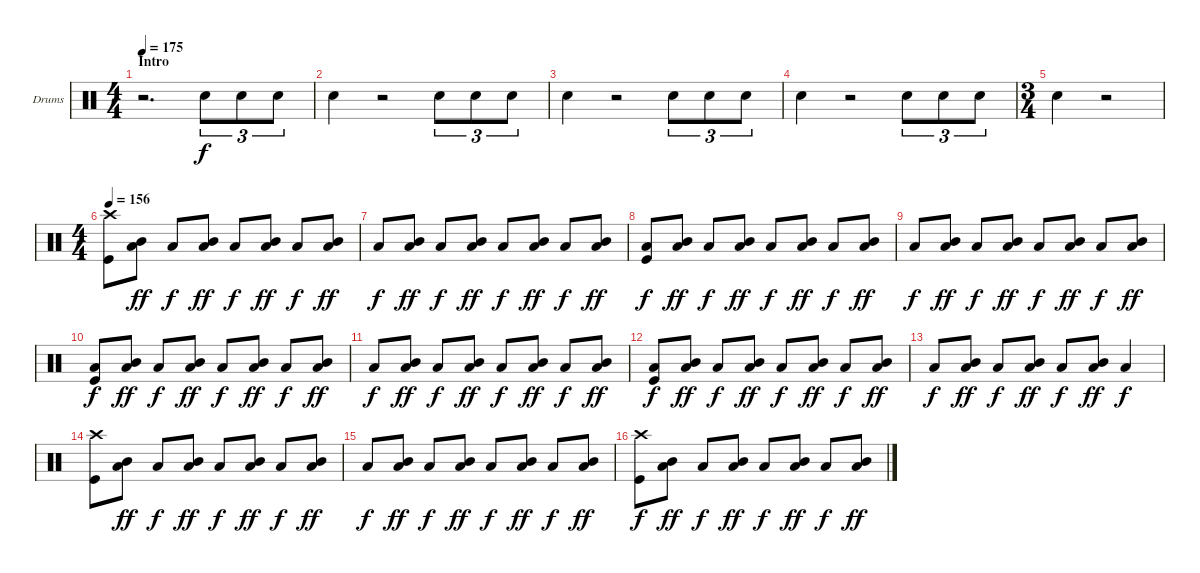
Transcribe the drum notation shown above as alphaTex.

\bracketExtendMode groupsimilarinstruments
\firstSystemTrackNameOrientation horizontal
\otherSystemsTrackNameOrientation horizontal
\track ("Drums" "Drums") {instrument percussion}
\staff {score}
\articulation defaults
\ts (4 4)
\section ("" "Intro")
\tempo 175
\clef neutral
\ks c
r.2{d dy f} "Snare (hit) 2".8{tu (3 2)} "Snare (hit) 2".8{tu (3 2)} "Snare (hit) 2".8{tu (3 2)} |
"Snare (hit) 2".4 r.2 "Snare (hit) 2".8{tu (3 2)} "Snare (hit) 2".8{tu (3 2)} "Snare (hit) 2".8{tu (3 2)} |
"Snare (hit) 2".4 r.2 "Snare (hit) 2".8{tu (3 2)} "Snare (hit) 2".8{tu (3 2)} "Snare (hit) 2".8{tu (3 2)} |
"Snare (hit) 2".4 r.2 "Snare (hit) 2".8{tu (3 2)} "Snare (hit) 2".8{tu (3 2)} "Snare (hit) 2".8{tu (3 2)} |
\ts (3 4)
"Snare (hit) 2".4 r.2 |
\ts (4 4)
\tempo 156
("Kick (hit)" "Crash high (hit)").8 ("Low Tom (hit)" "Mid Tom (hit)").8{dy ff} "Low Tom (hit)".8{dy f} ("Low Tom (hit)" "Mid Tom (hit)").8{dy ff} "Low Tom (hit)".8{dy f} ("Low Tom (hit)" "Mid Tom (hit)").8{dy ff} "Low Tom (hit)".8{dy f} ("Low Tom (hit)" "Mid Tom (hit)").8{dy ff} |
"Low Tom (hit)".8{dy f} ("Low Tom (hit)" "Mid Tom (hit)").8{dy ff} "Low Tom (hit)".8{dy f} ("Low Tom (hit)" "Mid Tom (hit)").8{dy ff} "Low Tom (hit)".8{dy f} ("Low Tom (hit)" "Mid Tom (hit)").8{dy ff} "Low Tom (hit)".8{dy f} ("Low Tom (hit)" "Mid Tom (hit)").8{dy ff} |
("Low Tom (hit)" "Kick (hit)").8{dy f} ("Low Tom (hit)" "Mid Tom (hit)").8{dy ff} "Low Tom (hit)".8{dy f} ("Low Tom (hit)" "Mid Tom (hit)").8{dy ff} "Low Tom (hit)".8{dy f} ("Low Tom (hit)" "Mid Tom (hit)").8{dy ff} "Low Tom (hit)".8{dy f} ("Low Tom (hit)" "Mid Tom (hit)").8{dy ff} |
"Low Tom (hit)".8{dy f} ("Low Tom (hit)" "Mid Tom (hit)").8{dy ff} "Low Tom (hit)".8{dy f} ("Low Tom (hit)" "Mid Tom (hit)").8{dy ff} "Low Tom (hit)".8{dy f} ("Low Tom (hit)" "Mid Tom (hit)").8{dy ff} "Low Tom (hit)".8{dy f} ("Low Tom (hit)" "Mid Tom (hit)").8{dy ff} |
("Low Tom (hit)" "Kick (hit)").8{dy f} ("Low Tom (hit)" "Mid Tom (hit)").8{dy ff} "Low Tom (hit)".8{dy f} ("Low Tom (hit)" "Mid Tom (hit)").8{dy ff} "Low Tom (hit)".8{dy f} ("Low Tom (hit)" "Mid Tom (hit)").8{dy ff} "Low Tom (hit)".8{dy f} ("Low Tom (hit)" "Mid Tom (hit)").8{dy ff} |
"Low Tom (hit)".8{dy f} ("Low Tom (hit)" "Mid Tom (hit)").8{dy ff} "Low Tom (hit)".8{dy f} ("Low Tom (hit)" "Mid Tom (hit)").8{dy ff} "Low Tom (hit)".8{dy f} ("Low Tom (hit)" "Mid Tom (hit)").8{dy ff} "Low Tom (hit)".8{dy f} ("Low Tom (hit)" "Mid Tom (hit)").8{dy ff} |
("Low Tom (hit)" "Kick (hit)").8{dy f} ("Low Tom (hit)" "Mid Tom (hit)").8{dy ff} "Low Tom (hit)".8{dy f} ("Low Tom (hit)" "Mid Tom (hit)").8{dy ff} "Low Tom (hit)".8{dy f} ("Low Tom (hit)" "Mid Tom (hit)").8{dy ff} "Low Tom (hit)".8{dy f} ("Low Tom (hit)" "Mid Tom (hit)").8{dy ff} |
"Low Tom (hit)".8{dy f} ("Low Tom (hit)" "Mid Tom (hit)").8{dy ff} "Low Tom (hit)".8{dy f} ("Low Tom (hit)" "Mid Tom (hit)").8{dy ff} "Low Tom (hit)".8{dy f} ("Low Tom (hit)" "Mid Tom (hit)").8{dy ff} "Low Tom (hit)".4{dy f} |
("Kick (hit)" "Crash high (hit)").8 ("Low Tom (hit)" "Mid Tom (hit)").8{dy ff} "Low Tom (hit)".8{dy f} ("Low Tom (hit)" "Mid Tom (hit)").8{dy ff} "Low Tom (hit)".8{dy f} ("Low Tom (hit)" "Mid Tom (hit)").8{dy ff} "Low Tom (hit)".8{dy f} ("Low Tom (hit)" "Mid Tom (hit)").8{dy ff} |
"Low Tom (hit)".8{dy f} ("Low Tom (hit)" "Mid Tom (hit)").8{dy ff} "Low Tom (hit)".8{dy f} ("Low Tom (hit)" "Mid Tom (hit)").8{dy ff} "Low Tom (hit)".8{dy f} ("Low Tom (hit)" "Mid Tom (hit)").8{dy ff} "Low Tom (hit)".8{dy f} ("Low Tom (hit)" "Mid Tom (hit)").8{dy ff} |
("Kick (hit)" "Crash high (hit)").8{dy f} ("Low Tom (hit)" "Mid Tom (hit)").8{dy ff} "Low Tom (hit)".8{dy f} ("Low Tom (hit)" "Mid Tom (hit)").8{dy ff} "Low Tom (hit)".8{dy f} ("Low Tom (hit)" "Mid Tom (hit)").8{dy ff} "Low Tom (hit)".8{dy f} ("Low Tom (hit)" "Mid Tom (hit)").8{dy ff}
